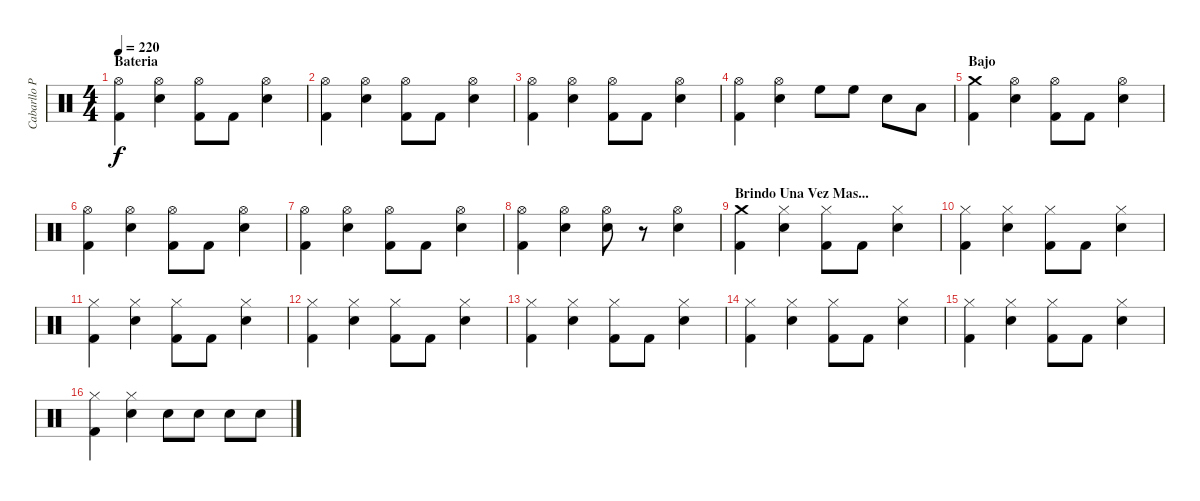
\track ("Cabarllo Pepe" "Cabarllo P") {instrument percussion}
\staff {score}
\articulation defaults
\ts (4 4)
\section ("" "Bateria")
\tempo 220
\clef neutral
\ks c
("Hi-Hat (open)" "Kick (hit) 2").4{dy f} ("Hi-Hat (open)" "Electric Snare (hit)").4 ("Hi-Hat (open)" "Kick (hit) 2").8 "Kick (hit) 2".8 ("Hi-Hat (open)" "Electric Snare (hit)").4 |
("Hi-Hat (open)" "Kick (hit) 2").4 ("Hi-Hat (open)" "Electric Snare (hit)").4 ("Hi-Hat (open)" "Kick (hit) 2").8 "Kick (hit) 2".8 ("Hi-Hat (open)" "Electric Snare (hit)").4 |
("Hi-Hat (open)" "Kick (hit) 2").4 ("Hi-Hat (open)" "Electric Snare (hit)").4 ("Hi-Hat (open)" "Kick (hit) 2").8 "Kick (hit) 2".8 ("Hi-Hat (open)" "Electric Snare (hit)").4 |
("Hi-Hat (open)" "Kick (hit) 2").4 ("Hi-Hat (open)" "Electric Snare (hit)").4 "High Floor Tom (hit)".8 "High Floor Tom (hit)".8 "Electric Snare (hit)".8 "Low Tom (hit)".8 |
\section ("" "Bajo")
("Crash medium (hit)" "Kick (hit) 2").4 ("Hi-Hat (open)" "Electric Snare (hit)").4 ("Hi-Hat (open)" "Kick (hit) 2").8 "Kick (hit) 2".8 ("Hi-Hat (open)" "Electric Snare (hit)").4 |
("Hi-Hat (open)" "Kick (hit) 2").4 ("Hi-Hat (open)" "Electric Snare (hit)").4 ("Hi-Hat (open)" "Kick (hit) 2").8 "Kick (hit) 2".8 ("Hi-Hat (open)" "Electric Snare (hit)").4 |
("Hi-Hat (open)" "Kick (hit) 2").4 ("Hi-Hat (open)" "Electric Snare (hit)").4 ("Hi-Hat (open)" "Kick (hit) 2").8 "Kick (hit) 2".8 ("Hi-Hat (open)" "Electric Snare (hit)").4 |
("Hi-Hat (open)" "Kick (hit) 2").4 ("Hi-Hat (open)" "Electric Snare (hit)").4 ("Hi-Hat (open)" "Electric Snare (hit)").8 r.8 ("Hi-Hat (open)" "Electric Snare (hit)").4 |
\section ("" "Brindo Una Vez Mas...")
("Crash medium (hit)" "Kick (hit) 2").4 ("Hi-Hat (closed)" "Electric Snare (hit)").4 ("Hi-Hat (closed)" "Kick (hit) 2").8 "Kick (hit) 2".8 ("Hi-Hat (closed)" "Electric Snare (hit)").4 |
("Hi-Hat (closed)" "Kick (hit) 2").4 ("Hi-Hat (closed)" "Electric Snare (hit)").4 ("Hi-Hat (closed)" "Kick (hit) 2").8 "Kick (hit) 2".8 ("Hi-Hat (closed)" "Electric Snare (hit)").4 |
("Hi-Hat (closed)" "Kick (hit) 2").4 ("Hi-Hat (closed)" "Electric Snare (hit)").4 ("Hi-Hat (closed)" "Kick (hit) 2").8 "Kick (hit) 2".8 ("Hi-Hat (closed)" "Electric Snare (hit)").4 |
("Hi-Hat (closed)" "Kick (hit) 2").4 ("Hi-Hat (closed)" "Electric Snare (hit)").4 ("Hi-Hat (closed)" "Kick (hit) 2").8 "Kick (hit) 2".8 ("Hi-Hat (closed)" "Electric Snare (hit)").4 |
("Hi-Hat (closed)" "Kick (hit) 2").4 ("Hi-Hat (closed)" "Electric Snare (hit)").4 ("Hi-Hat (closed)" "Kick (hit) 2").8 "Kick (hit) 2".8 ("Hi-Hat (closed)" "Electric Snare (hit)").4 |
("Hi-Hat (closed)" "Kick (hit) 2").4 ("Hi-Hat (closed)" "Electric Snare (hit)").4 ("Hi-Hat (closed)" "Kick (hit) 2").8 "Kick (hit) 2".8 ("Hi-Hat (closed)" "Electric Snare (hit)").4 |
("Hi-Hat (closed)" "Kick (hit) 2").4 ("Hi-Hat (closed)" "Electric Snare (hit)").4 ("Hi-Hat (closed)" "Kick (hit) 2").8 "Kick (hit) 2".8 ("Hi-Hat (closed)" "Electric Snare (hit)").4 |
("Hi-Hat (closed)" "Kick (hit) 2").4 ("Hi-Hat (closed)" "Electric Snare (hit)").4 "Electric Snare (hit)".8 "Electric Snare (hit)".8 "Electric Snare (hit)".8 "Electric Snare (hit)".8
